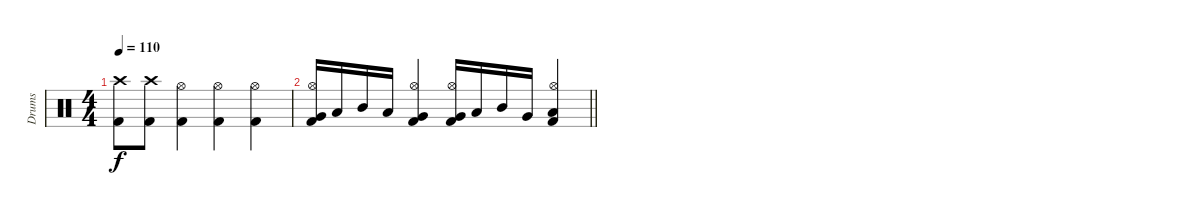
\track ("Drums" "Drums") {instrument percussion}
\staff {score}
\articulation defaults
\ts (4 4)
\tempo 110
\clef neutral
\ks c
("Crash high (hit)" "Kick (hit) 2").8{dy f} ("Crash high (hit)" "Kick (hit) 2").8 ("Hi-Hat (open)" "Kick (hit) 2").4 ("Hi-Hat (open)" "Kick (hit) 2").4 ("Hi-Hat (open)" "Kick (hit) 2").4 |
\barLineRight lightlight
("Hi-Hat (open)" "Very Low Tom (hit)" "Kick (hit) 2").16 "Low Tom (hit)".16 "Mid Tom (hit)".16 "Low Tom (hit)".16 ("Hi-Hat (open)" "Very Low Tom (hit)" "Kick (hit) 2").4 ("Hi-Hat (open)" "Very Low Tom (hit)" "Kick (hit) 2").16 "Low Tom (hit)".16 "Mid Tom (hit)".16 "Very Low Tom (hit)".16 ("Hi-Hat (open)" "Low Floor Tom (hit)" "Kick (hit) 2").4
